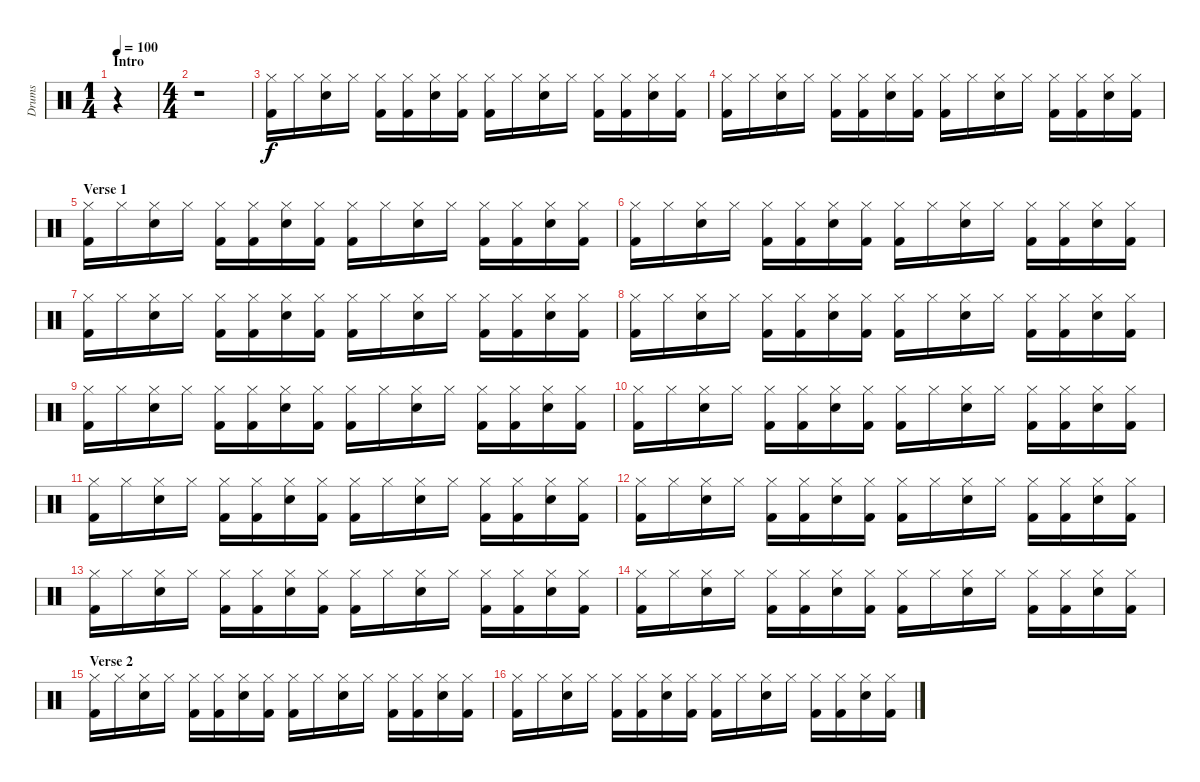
\track ("Drums" "Drums") {instrument percussion}
\staff {score}
\articulation defaults
\ts (1 4)
\section ("" "Intro")
\tempo 100
\clef neutral
\ks c
r.4{dy f} |
\ts (4 4)
r.1 |
("Hi-Hat (closed)" "Kick (hit) 2").16 "Hi-Hat (closed)".16 ("Hi-Hat (closed)" "Snare (hit) 2").16 "Hi-Hat (closed)".16 ("Hi-Hat (closed)" "Kick (hit) 2").16 ("Hi-Hat (closed)" "Kick (hit) 2").16 ("Hi-Hat (closed)" "Snare (hit) 2").16 ("Hi-Hat (closed)" "Kick (hit) 2").16 ("Hi-Hat (closed)" "Kick (hit) 2").16 "Hi-Hat (closed)".16 ("Hi-Hat (closed)" "Snare (hit) 2").16 "Hi-Hat (closed)".16 ("Hi-Hat (closed)" "Kick (hit) 2").16 ("Hi-Hat (closed)" "Kick (hit) 2").16 ("Hi-Hat (closed)" "Snare (hit) 2").16 ("Hi-Hat (closed)" "Kick (hit) 2").16 |
("Hi-Hat (closed)" "Kick (hit) 2").16 "Hi-Hat (closed)".16 ("Hi-Hat (closed)" "Snare (hit) 2").16 "Hi-Hat (closed)".16 ("Hi-Hat (closed)" "Kick (hit) 2").16 ("Hi-Hat (closed)" "Kick (hit) 2").16 ("Hi-Hat (closed)" "Snare (hit) 2").16 ("Hi-Hat (closed)" "Kick (hit) 2").16 ("Hi-Hat (closed)" "Kick (hit) 2").16 "Hi-Hat (closed)".16 ("Hi-Hat (closed)" "Snare (hit) 2").16 "Hi-Hat (closed)".16 ("Hi-Hat (closed)" "Kick (hit) 2").16 ("Hi-Hat (closed)" "Kick (hit) 2").16 ("Hi-Hat (closed)" "Snare (hit) 2").16 ("Hi-Hat (closed)" "Kick (hit) 2").16 |
\section ("" "Verse 1")
("Hi-Hat (closed)" "Kick (hit) 2").16 "Hi-Hat (closed)".16 ("Hi-Hat (closed)" "Snare (hit) 2").16 "Hi-Hat (closed)".16 ("Hi-Hat (closed)" "Kick (hit) 2").16 ("Hi-Hat (closed)" "Kick (hit) 2").16 ("Hi-Hat (closed)" "Snare (hit) 2").16 ("Hi-Hat (closed)" "Kick (hit) 2").16 ("Hi-Hat (closed)" "Kick (hit) 2").16 "Hi-Hat (closed)".16 ("Hi-Hat (closed)" "Snare (hit) 2").16 "Hi-Hat (closed)".16 ("Hi-Hat (closed)" "Kick (hit) 2").16 ("Hi-Hat (closed)" "Kick (hit) 2").16 ("Hi-Hat (closed)" "Snare (hit) 2").16 ("Hi-Hat (closed)" "Kick (hit) 2").16 |
("Hi-Hat (closed)" "Kick (hit) 2").16 "Hi-Hat (closed)".16 ("Hi-Hat (closed)" "Snare (hit) 2").16 "Hi-Hat (closed)".16 ("Hi-Hat (closed)" "Kick (hit) 2").16 ("Hi-Hat (closed)" "Kick (hit) 2").16 ("Hi-Hat (closed)" "Snare (hit) 2").16 ("Hi-Hat (closed)" "Kick (hit) 2").16 ("Hi-Hat (closed)" "Kick (hit) 2").16 "Hi-Hat (closed)".16 ("Hi-Hat (closed)" "Snare (hit) 2").16 "Hi-Hat (closed)".16 ("Hi-Hat (closed)" "Kick (hit) 2").16 ("Hi-Hat (closed)" "Kick (hit) 2").16 ("Hi-Hat (closed)" "Snare (hit) 2").16 ("Hi-Hat (closed)" "Kick (hit) 2").16 |
("Hi-Hat (closed)" "Kick (hit) 2").16 "Hi-Hat (closed)".16 ("Hi-Hat (closed)" "Snare (hit) 2").16 "Hi-Hat (closed)".16 ("Hi-Hat (closed)" "Kick (hit) 2").16 ("Hi-Hat (closed)" "Kick (hit) 2").16 ("Hi-Hat (closed)" "Snare (hit) 2").16 ("Hi-Hat (closed)" "Kick (hit) 2").16 ("Hi-Hat (closed)" "Kick (hit) 2").16 "Hi-Hat (closed)".16 ("Hi-Hat (closed)" "Snare (hit) 2").16 "Hi-Hat (closed)".16 ("Hi-Hat (closed)" "Kick (hit) 2").16 ("Hi-Hat (closed)" "Kick (hit) 2").16 ("Hi-Hat (closed)" "Snare (hit) 2").16 ("Hi-Hat (closed)" "Kick (hit) 2").16 |
("Hi-Hat (closed)" "Kick (hit) 2").16 "Hi-Hat (closed)".16 ("Hi-Hat (closed)" "Snare (hit) 2").16 "Hi-Hat (closed)".16 ("Hi-Hat (closed)" "Kick (hit) 2").16 ("Hi-Hat (closed)" "Kick (hit) 2").16 ("Hi-Hat (closed)" "Snare (hit) 2").16 ("Hi-Hat (closed)" "Kick (hit) 2").16 ("Hi-Hat (closed)" "Kick (hit) 2").16 "Hi-Hat (closed)".16 ("Hi-Hat (closed)" "Snare (hit) 2").16 "Hi-Hat (closed)".16 ("Hi-Hat (closed)" "Kick (hit) 2").16 ("Hi-Hat (closed)" "Kick (hit) 2").16 ("Hi-Hat (closed)" "Snare (hit) 2").16 ("Hi-Hat (closed)" "Kick (hit) 2").16 |
("Hi-Hat (closed)" "Kick (hit) 2").16 "Hi-Hat (closed)".16 ("Hi-Hat (closed)" "Snare (hit) 2").16 "Hi-Hat (closed)".16 ("Hi-Hat (closed)" "Kick (hit) 2").16 ("Hi-Hat (closed)" "Kick (hit) 2").16 ("Hi-Hat (closed)" "Snare (hit) 2").16 ("Hi-Hat (closed)" "Kick (hit) 2").16 ("Hi-Hat (closed)" "Kick (hit) 2").16 "Hi-Hat (closed)".16 ("Hi-Hat (closed)" "Snare (hit) 2").16 "Hi-Hat (closed)".16 ("Hi-Hat (closed)" "Kick (hit) 2").16 ("Hi-Hat (closed)" "Kick (hit) 2").16 ("Hi-Hat (closed)" "Snare (hit) 2").16 ("Hi-Hat (closed)" "Kick (hit) 2").16 |
("Hi-Hat (closed)" "Kick (hit) 2").16 "Hi-Hat (closed)".16 ("Hi-Hat (closed)" "Snare (hit) 2").16 "Hi-Hat (closed)".16 ("Hi-Hat (closed)" "Kick (hit) 2").16 ("Hi-Hat (closed)" "Kick (hit) 2").16 ("Hi-Hat (closed)" "Snare (hit) 2").16 ("Hi-Hat (closed)" "Kick (hit) 2").16 ("Hi-Hat (closed)" "Kick (hit) 2").16 "Hi-Hat (closed)".16 ("Hi-Hat (closed)" "Snare (hit) 2").16 "Hi-Hat (closed)".16 ("Hi-Hat (closed)" "Kick (hit) 2").16 ("Hi-Hat (closed)" "Kick (hit) 2").16 ("Hi-Hat (closed)" "Snare (hit) 2").16 ("Hi-Hat (closed)" "Kick (hit) 2").16 |
("Hi-Hat (closed)" "Kick (hit) 2").16 "Hi-Hat (closed)".16 ("Hi-Hat (closed)" "Snare (hit) 2").16 "Hi-Hat (closed)".16 ("Hi-Hat (closed)" "Kick (hit) 2").16 ("Hi-Hat (closed)" "Kick (hit) 2").16 ("Hi-Hat (closed)" "Snare (hit) 2").16 ("Hi-Hat (closed)" "Kick (hit) 2").16 ("Hi-Hat (closed)" "Kick (hit) 2").16 "Hi-Hat (closed)".16 ("Hi-Hat (closed)" "Snare (hit) 2").16 "Hi-Hat (closed)".16 ("Hi-Hat (closed)" "Kick (hit) 2").16 ("Hi-Hat (closed)" "Kick (hit) 2").16 ("Hi-Hat (closed)" "Snare (hit) 2").16 ("Hi-Hat (closed)" "Kick (hit) 2").16 |
("Hi-Hat (closed)" "Kick (hit) 2").16 "Hi-Hat (closed)".16 ("Hi-Hat (closed)" "Snare (hit) 2").16 "Hi-Hat (closed)".16 ("Hi-Hat (closed)" "Kick (hit) 2").16 ("Hi-Hat (closed)" "Kick (hit) 2").16 ("Hi-Hat (closed)" "Snare (hit) 2").16 ("Hi-Hat (closed)" "Kick (hit) 2").16 ("Hi-Hat (closed)" "Kick (hit) 2").16 "Hi-Hat (closed)".16 ("Hi-Hat (closed)" "Snare (hit) 2").16 "Hi-Hat (closed)".16 ("Hi-Hat (closed)" "Kick (hit) 2").16 ("Hi-Hat (closed)" "Kick (hit) 2").16 ("Hi-Hat (closed)" "Snare (hit) 2").16 ("Hi-Hat (closed)" "Kick (hit) 2").16 |
("Hi-Hat (closed)" "Kick (hit) 2").16 "Hi-Hat (closed)".16 ("Hi-Hat (closed)" "Snare (hit) 2").16 "Hi-Hat (closed)".16 ("Hi-Hat (closed)" "Kick (hit) 2").16 ("Hi-Hat (closed)" "Kick (hit) 2").16 ("Hi-Hat (closed)" "Snare (hit) 2").16 ("Hi-Hat (closed)" "Kick (hit) 2").16 ("Hi-Hat (closed)" "Kick (hit) 2").16 "Hi-Hat (closed)".16 ("Hi-Hat (closed)" "Snare (hit) 2").16 "Hi-Hat (closed)".16 ("Hi-Hat (closed)" "Kick (hit) 2").16 ("Hi-Hat (closed)" "Kick (hit) 2").16 ("Hi-Hat (closed)" "Snare (hit) 2").16 ("Hi-Hat (closed)" "Kick (hit) 2").16 |
("Hi-Hat (closed)" "Kick (hit) 2").16 "Hi-Hat (closed)".16 ("Hi-Hat (closed)" "Snare (hit) 2").16 "Hi-Hat (closed)".16 ("Hi-Hat (closed)" "Kick (hit) 2").16 ("Hi-Hat (closed)" "Kick (hit) 2").16 ("Hi-Hat (closed)" "Snare (hit) 2").16 ("Hi-Hat (closed)" "Kick (hit) 2").16 ("Hi-Hat (closed)" "Kick (hit) 2").16 "Hi-Hat (closed)".16 ("Hi-Hat (closed)" "Snare (hit) 2").16 "Hi-Hat (closed)".16 ("Hi-Hat (closed)" "Kick (hit) 2").16 ("Hi-Hat (closed)" "Kick (hit) 2").16 ("Hi-Hat (closed)" "Snare (hit) 2").16 ("Hi-Hat (closed)" "Kick (hit) 2").16 |
\section ("" "Verse 2")
("Hi-Hat (closed)" "Kick (hit) 2").16 "Hi-Hat (closed)".16 ("Hi-Hat (closed)" "Snare (hit) 2").16 "Hi-Hat (closed)".16 ("Hi-Hat (closed)" "Kick (hit) 2").16 ("Hi-Hat (closed)" "Kick (hit) 2").16 ("Hi-Hat (closed)" "Snare (hit) 2").16 ("Hi-Hat (closed)" "Kick (hit) 2").16 ("Hi-Hat (closed)" "Kick (hit) 2").16 "Hi-Hat (closed)".16 ("Hi-Hat (closed)" "Snare (hit) 2").16 "Hi-Hat (closed)".16 ("Hi-Hat (closed)" "Kick (hit) 2").16 ("Hi-Hat (closed)" "Kick (hit) 2").16 ("Hi-Hat (closed)" "Snare (hit) 2").16 ("Hi-Hat (closed)" "Kick (hit) 2").16 |
("Hi-Hat (closed)" "Kick (hit) 2").16 "Hi-Hat (closed)".16 ("Hi-Hat (closed)" "Snare (hit) 2").16 "Hi-Hat (closed)".16 ("Hi-Hat (closed)" "Kick (hit) 2").16 ("Hi-Hat (closed)" "Kick (hit) 2").16 ("Hi-Hat (closed)" "Snare (hit) 2").16 ("Hi-Hat (closed)" "Kick (hit) 2").16 ("Hi-Hat (closed)" "Kick (hit) 2").16 "Hi-Hat (closed)".16 ("Hi-Hat (closed)" "Snare (hit) 2").16 "Hi-Hat (closed)".16 ("Hi-Hat (closed)" "Kick (hit) 2").16 ("Hi-Hat (closed)" "Kick (hit) 2").16 ("Hi-Hat (closed)" "Snare (hit) 2").16 ("Hi-Hat (closed)" "Kick (hit) 2").16
